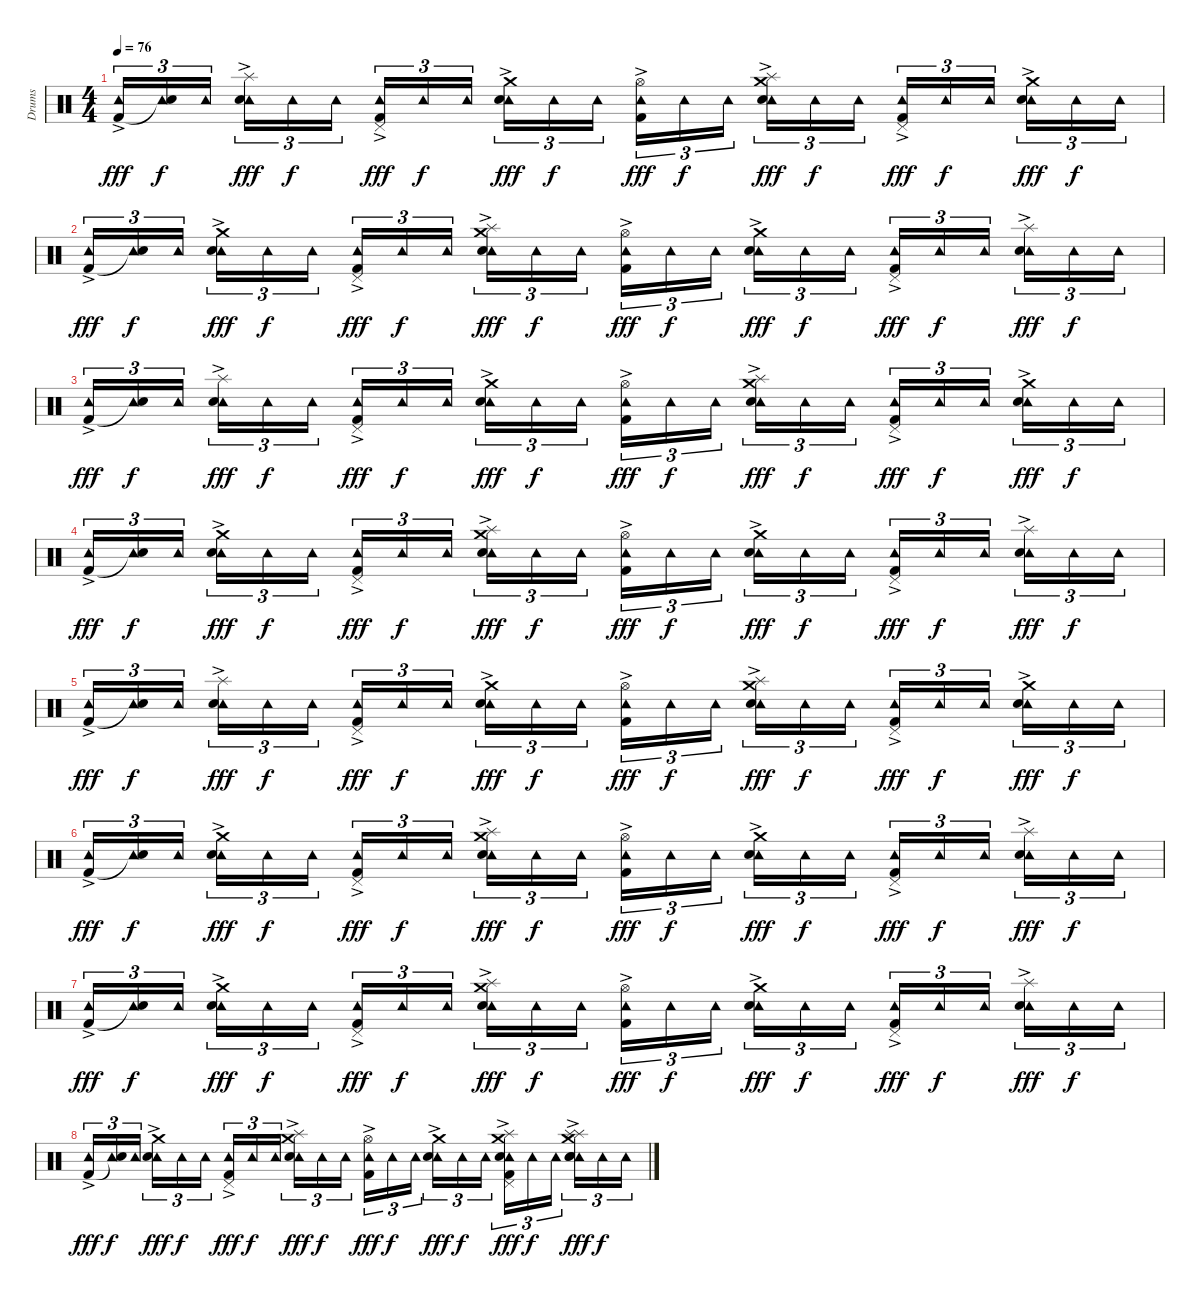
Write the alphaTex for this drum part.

\track ("Drums" "Drums") {instrument percussion}
\staff {score}
\articulation defaults
\ts (4 4)
\tempo 76
\clef neutral
\ks c
("Tambourine (hit)"{ac} "Kick (hit) 2").16{tu (3 2) dy fff} ("Tambourine (hit)" "Snare (hit)"{t}).16{tu (3 2) dy f} "Tambourine (hit)".16{tu (3 2)} ("Tambourine (hit)"{ac} "Snare (hit) 2" "Splash (hit)").16{tu (3 2) dy fff} "Tambourine (hit)".16{tu (3 2) dy f} "Tambourine (hit)".16{tu (3 2)} ("Tambourine (hit)"{ac} "Kick (hit) 2" "Pedal Hi-Hat (hit)").16{tu (3 2) dy fff} "Tambourine (hit)".16{tu (3 2) dy f} "Tambourine (hit)".16{tu (3 2)} ("Tambourine (hit)"{ac} "Snare (hit) 2" "Crash medium (hit)").16{tu (3 2) dy fff} "Tambourine (hit)".16{tu (3 2) dy f} "Tambourine (hit)".16{tu (3 2)} ("Tambourine (hit)"{ac} "Kick (hit) 2" "Hi-Hat (open)").16{tu (3 2) dy fff} "Tambourine (hit)".16{tu (3 2) dy f} "Tambourine (hit)".16{tu (3 2)} ("Tambourine (hit)"{ac} "Snare (hit) 2" "Crash medium (hit)" "Splash (hit)").16{tu (3 2) dy fff} "Tambourine (hit)".16{tu (3 2) dy f} "Tambourine (hit)".16{tu (3 2)} ("Tambourine (hit)"{ac} "Kick (hit) 2" "Pedal Hi-Hat (hit)").16{tu (3 2) dy fff} "Tambourine (hit)".16{tu (3 2) dy f} "Tambourine (hit)".16{tu (3 2)} ("Tambourine (hit)"{ac} "Snare (hit) 2" "Crash medium (hit)").16{tu (3 2) dy fff} "Tambourine (hit)".16{tu (3 2) dy f} "Tambourine (hit)".16{tu (3 2)} |
("Tambourine (hit)"{ac} "Kick (hit) 2").16{tu (3 2) dy fff} ("Tambourine (hit)" "Snare (hit)"{t}).16{tu (3 2) dy f} "Tambourine (hit)".16{tu (3 2)} ("Tambourine (hit)"{ac} "Snare (hit) 2" "Crash medium (hit)").16{tu (3 2) dy fff} "Tambourine (hit)".16{tu (3 2) dy f} "Tambourine (hit)".16{tu (3 2)} ("Tambourine (hit)"{ac} "Kick (hit) 2" "Pedal Hi-Hat (hit)").16{tu (3 2) dy fff} "Tambourine (hit)".16{tu (3 2) dy f} "Tambourine (hit)".16{tu (3 2)} ("Tambourine (hit)"{ac} "Snare (hit) 2" "Splash (hit)" "Crash medium (hit)").16{tu (3 2) dy fff} "Tambourine (hit)".16{tu (3 2) dy f} "Tambourine (hit)".16{tu (3 2)} ("Tambourine (hit)"{ac} "Kick (hit) 2" "Hi-Hat (open)").16{tu (3 2) dy fff} "Tambourine (hit)".16{tu (3 2) dy f} "Tambourine (hit)".16{tu (3 2)} ("Tambourine (hit)"{ac} "Snare (hit) 2" "Crash medium (hit)").16{tu (3 2) dy fff} "Tambourine (hit)".16{tu (3 2) dy f} "Tambourine (hit)".16{tu (3 2)} ("Tambourine (hit)"{ac} "Kick (hit) 2" "Pedal Hi-Hat (hit)").16{tu (3 2) dy fff} "Tambourine (hit)".16{tu (3 2) dy f} "Tambourine (hit)".16{tu (3 2)} ("Tambourine (hit)"{ac} "Snare (hit) 2" "Splash (hit)").16{tu (3 2) dy fff} "Tambourine (hit)".16{tu (3 2) dy f} "Tambourine (hit)".16{tu (3 2)} |
("Tambourine (hit)"{ac} "Kick (hit) 2").16{tu (3 2) dy fff} ("Tambourine (hit)" "Snare (hit)"{t}).16{tu (3 2) dy f} "Tambourine (hit)".16{tu (3 2)} ("Tambourine (hit)"{ac} "Snare (hit) 2" "Splash (hit)").16{tu (3 2) dy fff} "Tambourine (hit)".16{tu (3 2) dy f} "Tambourine (hit)".16{tu (3 2)} ("Tambourine (hit)"{ac} "Kick (hit) 2" "Pedal Hi-Hat (hit)").16{tu (3 2) dy fff} "Tambourine (hit)".16{tu (3 2) dy f} "Tambourine (hit)".16{tu (3 2)} ("Tambourine (hit)"{ac} "Snare (hit) 2" "Crash medium (hit)").16{tu (3 2) dy fff} "Tambourine (hit)".16{tu (3 2) dy f} "Tambourine (hit)".16{tu (3 2)} ("Tambourine (hit)"{ac} "Kick (hit) 2" "Hi-Hat (open)").16{tu (3 2) dy fff} "Tambourine (hit)".16{tu (3 2) dy f} "Tambourine (hit)".16{tu (3 2)} ("Tambourine (hit)"{ac} "Snare (hit) 2" "Crash medium (hit)" "Splash (hit)").16{tu (3 2) dy fff} "Tambourine (hit)".16{tu (3 2) dy f} "Tambourine (hit)".16{tu (3 2)} ("Tambourine (hit)"{ac} "Kick (hit) 2" "Pedal Hi-Hat (hit)").16{tu (3 2) dy fff} "Tambourine (hit)".16{tu (3 2) dy f} "Tambourine (hit)".16{tu (3 2)} ("Tambourine (hit)"{ac} "Snare (hit) 2" "Crash medium (hit)").16{tu (3 2) dy fff} "Tambourine (hit)".16{tu (3 2) dy f} "Tambourine (hit)".16{tu (3 2)} |
("Tambourine (hit)"{ac} "Kick (hit) 2").16{tu (3 2) dy fff} ("Tambourine (hit)" "Snare (hit)"{t}).16{tu (3 2) dy f} "Tambourine (hit)".16{tu (3 2)} ("Tambourine (hit)"{ac} "Snare (hit) 2" "Crash medium (hit)").16{tu (3 2) dy fff} "Tambourine (hit)".16{tu (3 2) dy f} "Tambourine (hit)".16{tu (3 2)} ("Tambourine (hit)"{ac} "Kick (hit) 2" "Pedal Hi-Hat (hit)").16{tu (3 2) dy fff} "Tambourine (hit)".16{tu (3 2) dy f} "Tambourine (hit)".16{tu (3 2)} ("Tambourine (hit)"{ac} "Snare (hit) 2" "Splash (hit)" "Crash medium (hit)").16{tu (3 2) dy fff} "Tambourine (hit)".16{tu (3 2) dy f} "Tambourine (hit)".16{tu (3 2)} ("Tambourine (hit)"{ac} "Kick (hit) 2" "Hi-Hat (open)").16{tu (3 2) dy fff} "Tambourine (hit)".16{tu (3 2) dy f} "Tambourine (hit)".16{tu (3 2)} ("Tambourine (hit)"{ac} "Snare (hit) 2" "Crash medium (hit)").16{tu (3 2) dy fff} "Tambourine (hit)".16{tu (3 2) dy f} "Tambourine (hit)".16{tu (3 2)} ("Tambourine (hit)"{ac} "Kick (hit) 2" "Pedal Hi-Hat (hit)").16{tu (3 2) dy fff} "Tambourine (hit)".16{tu (3 2) dy f} "Tambourine (hit)".16{tu (3 2)} ("Tambourine (hit)"{ac} "Snare (hit) 2" "Splash (hit)").16{tu (3 2) dy fff} "Tambourine (hit)".16{tu (3 2) dy f} "Tambourine (hit)".16{tu (3 2)} |
("Tambourine (hit)"{ac} "Kick (hit) 2").16{tu (3 2) dy fff} ("Tambourine (hit)" "Snare (hit)"{t}).16{tu (3 2) dy f} "Tambourine (hit)".16{tu (3 2)} ("Tambourine (hit)"{ac} "Snare (hit) 2" "Splash (hit)").16{tu (3 2) dy fff} "Tambourine (hit)".16{tu (3 2) dy f} "Tambourine (hit)".16{tu (3 2)} ("Tambourine (hit)"{ac} "Kick (hit) 2" "Pedal Hi-Hat (hit)").16{tu (3 2) dy fff} "Tambourine (hit)".16{tu (3 2) dy f} "Tambourine (hit)".16{tu (3 2)} ("Tambourine (hit)"{ac} "Snare (hit) 2" "Crash medium (hit)").16{tu (3 2) dy fff} "Tambourine (hit)".16{tu (3 2) dy f} "Tambourine (hit)".16{tu (3 2)} ("Tambourine (hit)"{ac} "Kick (hit) 2" "Hi-Hat (open)").16{tu (3 2) dy fff} "Tambourine (hit)".16{tu (3 2) dy f} "Tambourine (hit)".16{tu (3 2)} ("Tambourine (hit)"{ac} "Snare (hit) 2" "Crash medium (hit)" "Splash (hit)").16{tu (3 2) dy fff} "Tambourine (hit)".16{tu (3 2) dy f} "Tambourine (hit)".16{tu (3 2)} ("Tambourine (hit)"{ac} "Kick (hit) 2" "Pedal Hi-Hat (hit)").16{tu (3 2) dy fff} "Tambourine (hit)".16{tu (3 2) dy f} "Tambourine (hit)".16{tu (3 2)} ("Tambourine (hit)"{ac} "Snare (hit) 2" "Crash medium (hit)").16{tu (3 2) dy fff} "Tambourine (hit)".16{tu (3 2) dy f} "Tambourine (hit)".16{tu (3 2)} |
("Tambourine (hit)"{ac} "Kick (hit) 2").16{tu (3 2) dy fff} ("Tambourine (hit)" "Snare (hit)"{t}).16{tu (3 2) dy f} "Tambourine (hit)".16{tu (3 2)} ("Tambourine (hit)"{ac} "Snare (hit) 2" "Crash medium (hit)").16{tu (3 2) dy fff} "Tambourine (hit)".16{tu (3 2) dy f} "Tambourine (hit)".16{tu (3 2)} ("Tambourine (hit)"{ac} "Kick (hit) 2" "Pedal Hi-Hat (hit)").16{tu (3 2) dy fff} "Tambourine (hit)".16{tu (3 2) dy f} "Tambourine (hit)".16{tu (3 2)} ("Tambourine (hit)"{ac} "Snare (hit) 2" "Splash (hit)" "Crash medium (hit)").16{tu (3 2) dy fff} "Tambourine (hit)".16{tu (3 2) dy f} "Tambourine (hit)".16{tu (3 2)} ("Tambourine (hit)"{ac} "Kick (hit) 2" "Hi-Hat (open)").16{tu (3 2) dy fff} "Tambourine (hit)".16{tu (3 2) dy f} "Tambourine (hit)".16{tu (3 2)} ("Tambourine (hit)"{ac} "Snare (hit) 2" "Crash medium (hit)").16{tu (3 2) dy fff} "Tambourine (hit)".16{tu (3 2) dy f} "Tambourine (hit)".16{tu (3 2)} ("Tambourine (hit)"{ac} "Kick (hit) 2" "Pedal Hi-Hat (hit)").16{tu (3 2) dy fff} "Tambourine (hit)".16{tu (3 2) dy f} "Tambourine (hit)".16{tu (3 2)} ("Tambourine (hit)"{ac} "Snare (hit) 2" "Splash (hit)").16{tu (3 2) dy fff} "Tambourine (hit)".16{tu (3 2) dy f} "Tambourine (hit)".16{tu (3 2)} |
("Tambourine (hit)"{ac} "Kick (hit) 2").16{tu (3 2) dy fff} ("Tambourine (hit)" "Snare (hit)"{t}).16{tu (3 2) dy f} "Tambourine (hit)".16{tu (3 2)} ("Tambourine (hit)"{ac} "Snare (hit) 2" "Crash medium (hit)").16{tu (3 2) dy fff} "Tambourine (hit)".16{tu (3 2) dy f} "Tambourine (hit)".16{tu (3 2)} ("Tambourine (hit)"{ac} "Kick (hit) 2" "Pedal Hi-Hat (hit)").16{tu (3 2) dy fff} "Tambourine (hit)".16{tu (3 2) dy f} "Tambourine (hit)".16{tu (3 2)} ("Tambourine (hit)"{ac} "Snare (hit) 2" "Splash (hit)" "Crash medium (hit)").16{tu (3 2) dy fff} "Tambourine (hit)".16{tu (3 2) dy f} "Tambourine (hit)".16{tu (3 2)} ("Tambourine (hit)"{ac} "Kick (hit) 2" "Hi-Hat (open)").16{tu (3 2) dy fff} "Tambourine (hit)".16{tu (3 2) dy f} "Tambourine (hit)".16{tu (3 2)} ("Tambourine (hit)"{ac} "Snare (hit) 2" "Crash medium (hit)").16{tu (3 2) dy fff} "Tambourine (hit)".16{tu (3 2) dy f} "Tambourine (hit)".16{tu (3 2)} ("Tambourine (hit)"{ac} "Kick (hit) 2" "Pedal Hi-Hat (hit)").16{tu (3 2) dy fff} "Tambourine (hit)".16{tu (3 2) dy f} "Tambourine (hit)".16{tu (3 2)} ("Tambourine (hit)"{ac} "Snare (hit) 2" "Splash (hit)").16{tu (3 2) dy fff} "Tambourine (hit)".16{tu (3 2) dy f} "Tambourine (hit)".16{tu (3 2)} |
("Tambourine (hit)"{ac} "Kick (hit) 2").16{tu (3 2) dy fff} ("Tambourine (hit)" "Snare (hit)"{t}).16{tu (3 2) dy f} "Tambourine (hit)".16{tu (3 2)} ("Tambourine (hit)"{ac} "Snare (hit) 2" "Crash medium (hit)").16{tu (3 2) dy fff} "Tambourine (hit)".16{tu (3 2) dy f} "Tambourine (hit)".16{tu (3 2)} ("Tambourine (hit)"{ac} "Kick (hit) 2" "Pedal Hi-Hat (hit)").16{tu (3 2) dy fff} "Tambourine (hit)".16{tu (3 2) dy f} "Tambourine (hit)".16{tu (3 2)} ("Tambourine (hit)"{ac} "Snare (hit) 2" "Splash (hit)" "Crash medium (hit)").16{tu (3 2) dy fff} "Tambourine (hit)".16{tu (3 2) dy f} "Tambourine (hit)".16{tu (3 2)} ("Tambourine (hit)"{ac} "Kick (hit) 2" "Hi-Hat (open)").16{tu (3 2) dy fff} "Tambourine (hit)".16{tu (3 2) dy f} "Tambourine (hit)".16{tu (3 2)} ("Tambourine (hit)"{ac} "Snare (hit) 2" "Crash medium (hit)").16{tu (3 2) dy fff} "Tambourine (hit)".16{tu (3 2) dy f} "Tambourine (hit)".16{tu (3 2)} ("Tambourine (hit)"{ac} "Kick (hit) 2" "Pedal Hi-Hat (hit)" "Snare (hit) 2" "Splash (hit)" "Crash medium (hit)").16{tu (3 2) dy fff} "Tambourine (hit)".16{tu (3 2) dy f} "Tambourine (hit)".16{tu (3 2)} ("Tambourine (hit)"{ac} "Snare (hit) 2" "Splash (hit)" "Snare (hit) 2" "Splash (hit)" "Crash medium (hit)").16{tu (3 2) dy fff} "Tambourine (hit)".16{tu (3 2) dy f} "Tambourine (hit)".16{tu (3 2)}
